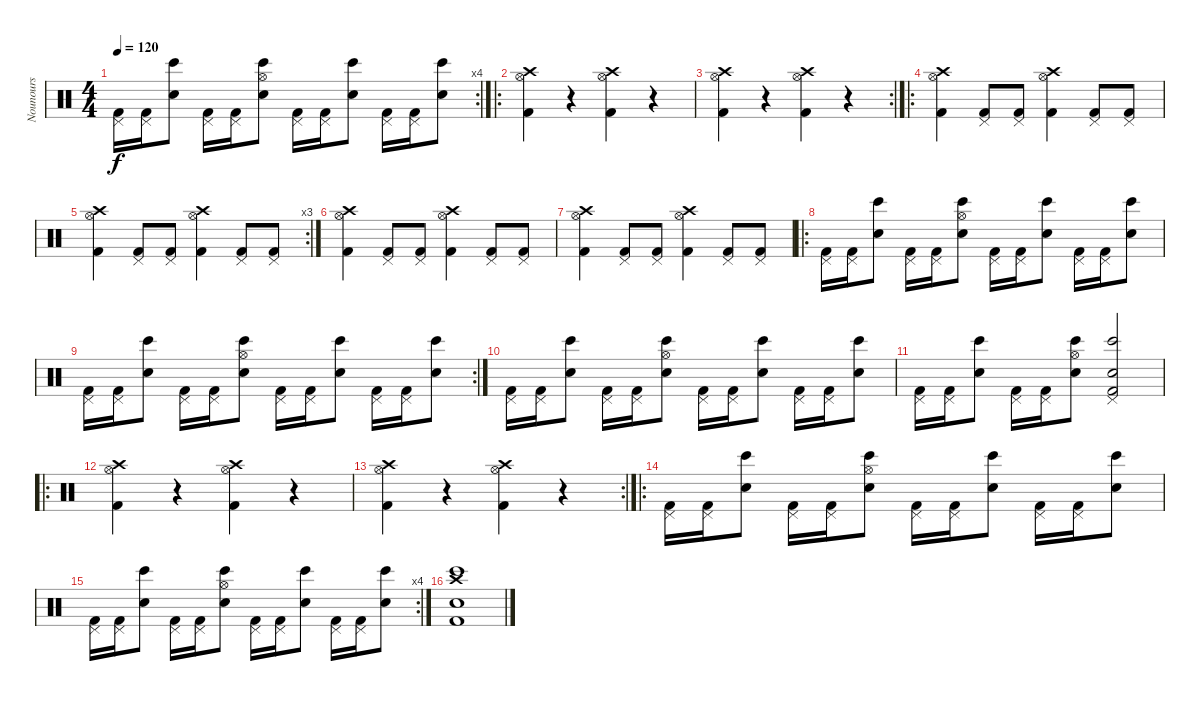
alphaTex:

\track ("Nounours" "Nounours") {instrument percussion}
\staff {score}
\articulation defaults
\rc 4
\ts (4 4)
\tempo 120
\clef neutral
\ks c
("Pedal Hi-Hat (hit)" "Kick (hit) 2").16{dy f} ("Pedal Hi-Hat (hit)" "Kick (hit) 2").16 ("Bongo High (hit)" "Electric Snare (hit)").8 ("Pedal Hi-Hat (hit)" "Kick (hit) 2").16 ("Pedal Hi-Hat (hit)" "Kick (hit) 2").16 ("Hi-Hat (open)" "Bongo High (hit)" "Electric Snare (hit)").8 ("Pedal Hi-Hat (hit)" "Kick (hit) 2").16 ("Pedal Hi-Hat (hit)" "Kick (hit) 2").16 ("Bongo High (hit)" "Electric Snare (hit)").8 ("Pedal Hi-Hat (hit)" "Kick (hit) 2").16 ("Pedal Hi-Hat (hit)" "Kick (hit) 2").16 ("Bongo High (hit)" "Electric Snare (hit)").8 |
\ro
("Crash high (hit)" "Hi-Hat (open)" "Kick (hit) 2").4 r.4 ("Crash high (hit)" "Hi-Hat (open)" "Kick (hit) 2").4 r.4 |
\rc 2
("Crash high (hit)" "Hi-Hat (open)" "Kick (hit) 2").4 r.4 ("Crash high (hit)" "Hi-Hat (open)" "Kick (hit) 2").4 r.4 |
\ro
("Crash high (hit)" "Hi-Hat (open)" "Kick (hit) 2").4 ("Pedal Hi-Hat (hit)" "Kick (hit) 2").8 ("Pedal Hi-Hat (hit)" "Kick (hit) 2").8 ("Crash high (hit)" "Hi-Hat (open)" "Kick (hit) 2").4 ("Pedal Hi-Hat (hit)" "Kick (hit) 2").8 ("Pedal Hi-Hat (hit)" "Kick (hit) 2").8 |
\rc 3
("Crash high (hit)" "Hi-Hat (open)" "Kick (hit) 2").4 ("Pedal Hi-Hat (hit)" "Kick (hit) 2").8 ("Pedal Hi-Hat (hit)" "Kick (hit) 2").8 ("Crash high (hit)" "Hi-Hat (open)" "Kick (hit) 2").4 ("Pedal Hi-Hat (hit)" "Kick (hit) 2").8 ("Pedal Hi-Hat (hit)" "Kick (hit) 2").8 |
("Crash high (hit)" "Hi-Hat (open)" "Kick (hit) 2").4 ("Pedal Hi-Hat (hit)" "Kick (hit) 2").8 ("Pedal Hi-Hat (hit)" "Kick (hit) 2").8 ("Crash high (hit)" "Hi-Hat (open)" "Kick (hit) 2").4 ("Pedal Hi-Hat (hit)" "Kick (hit) 2").8 ("Pedal Hi-Hat (hit)" "Kick (hit) 2").8 |
("Crash high (hit)" "Hi-Hat (open)" "Kick (hit) 2").4 ("Pedal Hi-Hat (hit)" "Kick (hit) 2").8 ("Pedal Hi-Hat (hit)" "Kick (hit) 2").8 ("Crash high (hit)" "Hi-Hat (open)" "Kick (hit) 2").4 ("Pedal Hi-Hat (hit)" "Kick (hit) 2").8 ("Pedal Hi-Hat (hit)" "Kick (hit) 2").8 |
\ro
("Pedal Hi-Hat (hit)" "Kick (hit) 2").16 ("Pedal Hi-Hat (hit)" "Kick (hit) 2").16 ("Bongo High (hit)" "Electric Snare (hit)").8 ("Pedal Hi-Hat (hit)" "Kick (hit) 2").16 ("Pedal Hi-Hat (hit)" "Kick (hit) 2").16 ("Hi-Hat (open)" "Bongo High (hit)" "Electric Snare (hit)").8 ("Pedal Hi-Hat (hit)" "Kick (hit) 2").16 ("Pedal Hi-Hat (hit)" "Kick (hit) 2").16 ("Bongo High (hit)" "Electric Snare (hit)").8 ("Pedal Hi-Hat (hit)" "Kick (hit) 2").16 ("Pedal Hi-Hat (hit)" "Kick (hit) 2").16 ("Bongo High (hit)" "Electric Snare (hit)").8 |
\rc 2
("Pedal Hi-Hat (hit)" "Kick (hit) 2").16 ("Pedal Hi-Hat (hit)" "Kick (hit) 2").16 ("Bongo High (hit)" "Electric Snare (hit)").8 ("Pedal Hi-Hat (hit)" "Kick (hit) 2").16 ("Pedal Hi-Hat (hit)" "Kick (hit) 2").16 ("Hi-Hat (open)" "Bongo High (hit)" "Electric Snare (hit)").8 ("Pedal Hi-Hat (hit)" "Kick (hit) 2").16 ("Pedal Hi-Hat (hit)" "Kick (hit) 2").16 ("Bongo High (hit)" "Electric Snare (hit)").8 ("Pedal Hi-Hat (hit)" "Kick (hit) 2").16 ("Pedal Hi-Hat (hit)" "Kick (hit) 2").16 ("Bongo High (hit)" "Electric Snare (hit)").8 |
("Pedal Hi-Hat (hit)" "Kick (hit) 2").16 ("Pedal Hi-Hat (hit)" "Kick (hit) 2").16 ("Bongo High (hit)" "Electric Snare (hit)").8 ("Pedal Hi-Hat (hit)" "Kick (hit) 2").16 ("Pedal Hi-Hat (hit)" "Kick (hit) 2").16 ("Hi-Hat (open)" "Bongo High (hit)" "Electric Snare (hit)").8 ("Pedal Hi-Hat (hit)" "Kick (hit) 2").16 ("Pedal Hi-Hat (hit)" "Kick (hit) 2").16 ("Bongo High (hit)" "Electric Snare (hit)").8 ("Pedal Hi-Hat (hit)" "Kick (hit) 2").16 ("Pedal Hi-Hat (hit)" "Kick (hit) 2").16 ("Bongo High (hit)" "Electric Snare (hit)").8 |
("Pedal Hi-Hat (hit)" "Kick (hit) 2").16 ("Pedal Hi-Hat (hit)" "Kick (hit) 2").16 ("Bongo High (hit)" "Electric Snare (hit)").8 ("Pedal Hi-Hat (hit)" "Kick (hit) 2").16 ("Pedal Hi-Hat (hit)" "Kick (hit) 2").16 ("Hi-Hat (open)" "Bongo High (hit)" "Electric Snare (hit)").8 ("Pedal Hi-Hat (hit)" "Electric Snare (hit)" "Kick (hit) 2" "Bongo High (hit)").2 |
\ro
("Crash high (hit)" "Hi-Hat (open)" "Kick (hit) 2").4 r.4 ("Crash high (hit)" "Hi-Hat (open)" "Kick (hit) 2").4 r.4 |
\rc 2
("Crash high (hit)" "Hi-Hat (open)" "Kick (hit) 2").4 r.4 ("Crash high (hit)" "Hi-Hat (open)" "Kick (hit) 2").4 r.4 |
\ro
("Pedal Hi-Hat (hit)" "Kick (hit) 2").16 ("Pedal Hi-Hat (hit)" "Kick (hit) 2").16 ("Bongo High (hit)" "Electric Snare (hit)").8 ("Pedal Hi-Hat (hit)" "Kick (hit) 2").16 ("Pedal Hi-Hat (hit)" "Kick (hit) 2").16 ("Hi-Hat (open)" "Bongo High (hit)" "Electric Snare (hit)").8 ("Pedal Hi-Hat (hit)" "Kick (hit) 2").16 ("Pedal Hi-Hat (hit)" "Kick (hit) 2").16 ("Bongo High (hit)" "Electric Snare (hit)").8 ("Pedal Hi-Hat (hit)" "Kick (hit) 2").16 ("Pedal Hi-Hat (hit)" "Kick (hit) 2").16 ("Bongo High (hit)" "Electric Snare (hit)").8 |
\rc 4
("Pedal Hi-Hat (hit)" "Kick (hit) 2").16 ("Pedal Hi-Hat (hit)" "Kick (hit) 2").16 ("Bongo High (hit)" "Electric Snare (hit)").8 ("Pedal Hi-Hat (hit)" "Kick (hit) 2").16 ("Pedal Hi-Hat (hit)" "Kick (hit) 2").16 ("Hi-Hat (open)" "Bongo High (hit)" "Electric Snare (hit)").8 ("Pedal Hi-Hat (hit)" "Kick (hit) 2").16 ("Pedal Hi-Hat (hit)" "Kick (hit) 2").16 ("Bongo High (hit)" "Electric Snare (hit)").8 ("Pedal Hi-Hat (hit)" "Kick (hit) 2").16 ("Pedal Hi-Hat (hit)" "Kick (hit) 2").16 ("Bongo High (hit)" "Electric Snare (hit)").8 |
("Crash high (hit)" "Kick (hit) 2" "Bongo High (hit)" "Electric Snare (hit)").1
